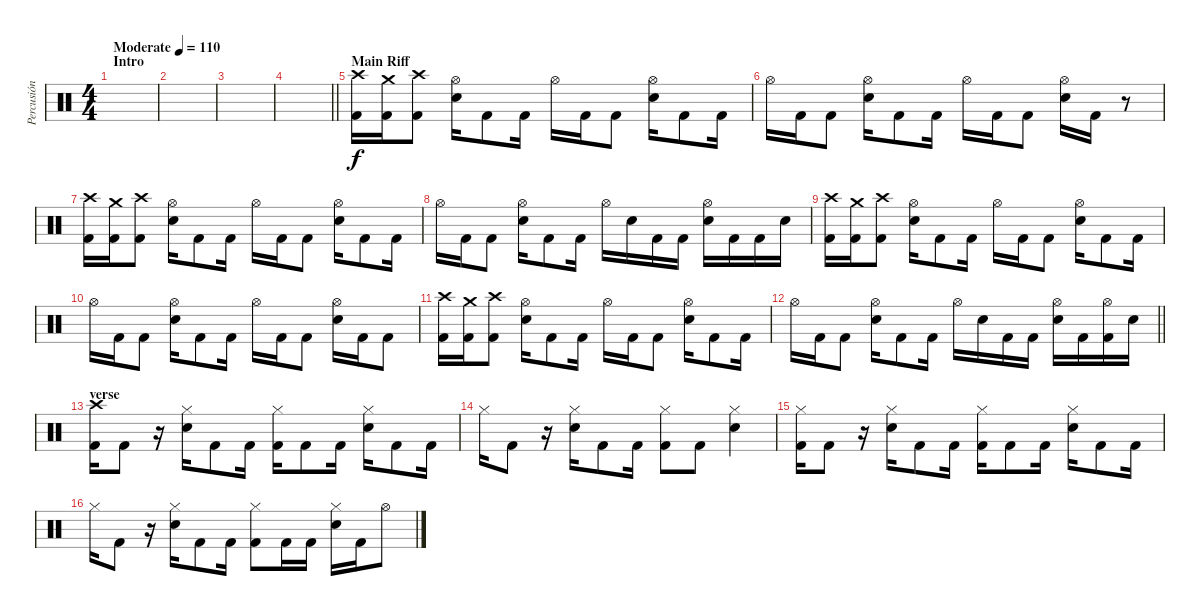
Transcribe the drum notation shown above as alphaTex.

\track ("Percusión" "Percusión") {instrument percussion}
\staff {score}
\articulation defaults
\ts (4 4)
\section ("" "Intro")
\tempo (110 "Moderate")
\clef neutral
\ks c
|
|
|
\barLineRight lightlight
|
\section ("" "Main Riff")
("Crash high (hit)" "Kick (hit) 2").16 ("Crash medium (hit)" "Kick (hit) 2").16 ("Crash high (hit)" "Kick (hit) 2").8 ("Hi-Hat (open)" "Snare (hit) 2").16 "Kick (hit) 2".8 "Kick (hit) 2".16 "Hi-Hat (open)".16 "Kick (hit) 2".16 "Kick (hit) 2".8 ("Hi-Hat (open)" "Snare (hit) 2").16 "Kick (hit) 2".8 "Kick (hit) 2".16 |
"Hi-Hat (open)".16 "Kick (hit) 2".16 "Kick (hit) 2".8 ("Hi-Hat (open)" "Snare (hit) 2").16 "Kick (hit) 2".8 "Kick (hit) 2".16 "Hi-Hat (open)".16 "Kick (hit) 2".16 "Kick (hit) 2".8 ("Hi-Hat (open)" "Snare (hit) 2").16 "Kick (hit) 2".16 r.8 |
("Crash high (hit)" "Kick (hit) 2").16 ("Crash medium (hit)" "Kick (hit) 2").16 ("Crash high (hit)" "Kick (hit) 2").8 ("Hi-Hat (open)" "Snare (hit) 2").16 "Kick (hit) 2".8 "Kick (hit) 2".16 "Hi-Hat (open)".16 "Kick (hit) 2".16 "Kick (hit) 2".8 ("Hi-Hat (open)" "Snare (hit) 2").16 "Kick (hit) 2".8 "Kick (hit) 2".16 |
"Hi-Hat (open)".16 "Kick (hit) 2".16 "Kick (hit) 2".8 ("Hi-Hat (open)" "Snare (hit) 2").16 "Kick (hit) 2".8 "Kick (hit) 2".16 "Hi-Hat (open)".16 "Snare (hit) 2".16 "Kick (hit) 2".16 "Kick (hit) 2".16 ("Hi-Hat (open)" "Snare (hit) 2").16 "Kick (hit) 2".16 "Kick (hit) 2".16 "Snare (hit) 2".16 |
("Crash high (hit)" "Kick (hit) 2").16 ("Crash medium (hit)" "Kick (hit) 2").16 ("Crash high (hit)" "Kick (hit) 2").8 ("Hi-Hat (open)" "Snare (hit) 2").16 "Kick (hit) 2".8 "Kick (hit) 2".16 "Hi-Hat (open)".16 "Kick (hit) 2".16 "Kick (hit) 2".8 ("Hi-Hat (open)" "Snare (hit) 2").16 "Kick (hit) 2".8 "Kick (hit) 2".16 |
"Hi-Hat (open)".16 "Kick (hit) 2".16 "Kick (hit) 2".8 ("Hi-Hat (open)" "Snare (hit) 2").16 "Kick (hit) 2".8 "Kick (hit) 2".16 "Hi-Hat (open)".16 "Kick (hit) 2".16 "Kick (hit) 2".8 ("Hi-Hat (open)" "Snare (hit) 2").16 "Kick (hit) 2".16 "Kick (hit) 2".8 |
("Crash high (hit)" "Kick (hit) 2").16 ("Crash medium (hit)" "Kick (hit) 2").16 ("Crash high (hit)" "Kick (hit) 2").8 ("Hi-Hat (open)" "Snare (hit) 2").16 "Kick (hit) 2".8 "Kick (hit) 2".16 "Hi-Hat (open)".16 "Kick (hit) 2".16 "Kick (hit) 2".8 ("Hi-Hat (open)" "Snare (hit) 2").16 "Kick (hit) 2".8 "Kick (hit) 2".16 |
\barLineRight lightlight "Hi-Hat (open)".16 "Kick (hit) 2".16 "Kick (hit) 2".8
("Hi-Hat (open)" "Snare (hit) 2").16 "Kick (hit) 2".8 "Kick (hit) 2".16 "Hi-Hat (open)".16 "Snare (hit) 2".16 "Kick (hit) 2".16 "Kick (hit) 2".16 ("Hi-Hat (open)" "Snare (hit) 2").16 "Kick (hit) 2".16 ("Hi-Hat (open)" "Kick (hit) 2").16 "Snare (hit) 2".16 |
\section ("" "verse")
("Crash high (hit)" "Kick (hit) 2").16 "Kick (hit) 2".8 r.16 ("Hi-Hat (closed)" "Snare (hit) 2").16 "Kick (hit) 2".8 "Kick (hit) 2".16 ("Hi-Hat (closed)" "Kick (hit) 2").16 "Kick (hit) 2".8 "Kick (hit) 2".16 ("Hi-Hat (closed)" "Snare (hit) 2").16 "Kick (hit) 2".8 "Kick (hit) 2".16 |
"Hi-Hat (closed)".16 "Kick (hit) 2".8 r.16 ("Hi-Hat (closed)" "Snare (hit) 2").16 "Kick (hit) 2".8 "Kick (hit) 2".16 ("Hi-Hat (closed)" "Kick (hit) 2").8 "Kick (hit) 2".8 ("Hi-Hat (closed)" "Snare (hit) 2").4 |
("Hi-Hat (closed)" "Kick (hit) 2").16 "Kick (hit) 2".8 r.16 ("Hi-Hat (closed)" "Snare (hit) 2").16 "Kick (hit) 2".8 "Kick (hit) 2".16 ("Hi-Hat (closed)" "Kick (hit) 2").16 "Kick (hit) 2".8 "Kick (hit) 2".16 ("Hi-Hat (closed)" "Snare (hit) 2").16 "Kick (hit) 2".8 "Kick (hit) 2".16 |
"Hi-Hat (closed)".16 "Kick (hit) 2".8 r.16 ("Hi-Hat (closed)" "Snare (hit) 2").16 "Kick (hit) 2".8 "Kick (hit) 2".16 ("Hi-Hat (closed)" "Kick (hit) 2").8 "Kick (hit) 2".16 "Kick (hit) 2".16 ("Hi-Hat (closed)" "Snare (hit) 2").16 "Kick (hit) 2".16 "Hi-Hat (open)".8
